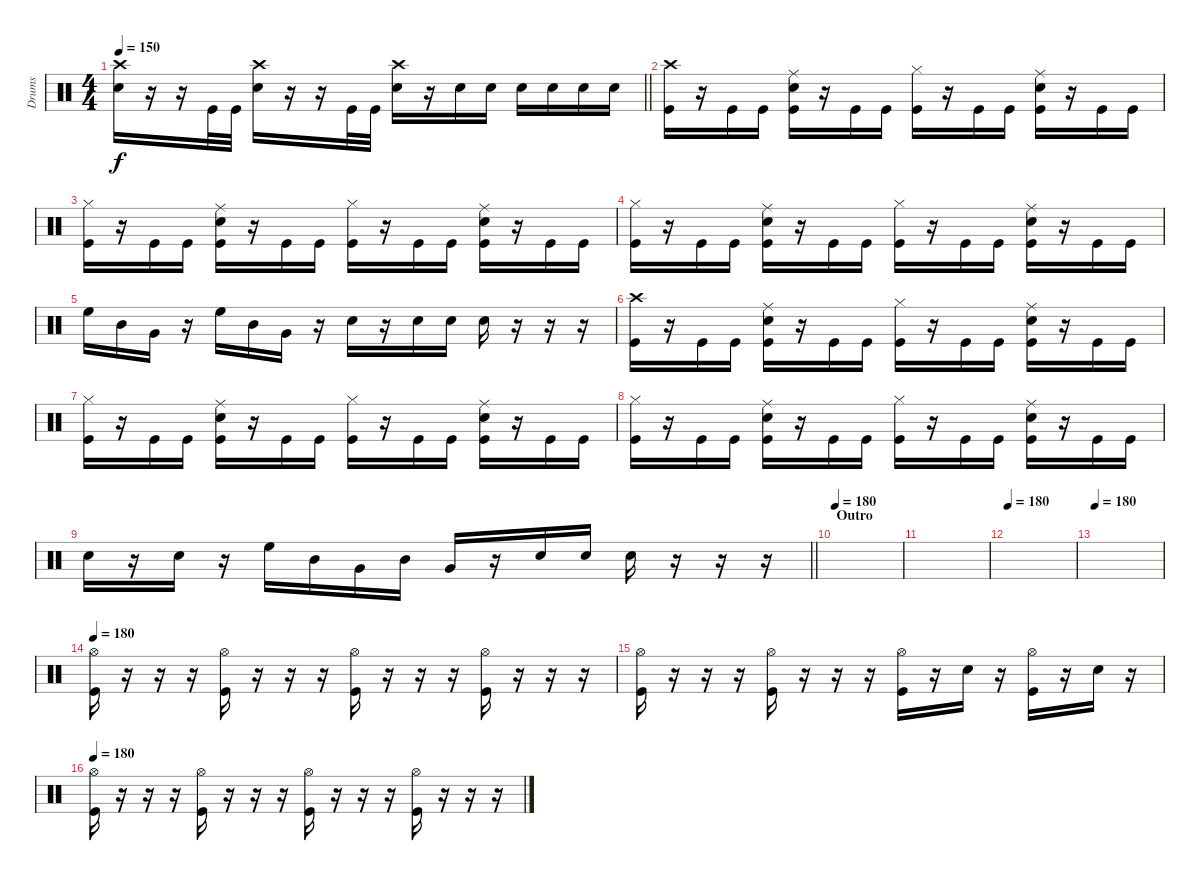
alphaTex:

\track ("Drums" "Drums") {instrument percussion}
\staff
\articulation defaults
\ts (4 4)
\tempo 150
\clef neutral
\barLineRight lightlight
\ks c
("Crash high (hit)" "Snare (hit) 2").16{dy f} r.16 r.16 "Kick (hit)".32 "Kick (hit)".32 ("Crash high (hit)" "Snare (hit) 2").16 r.16 r.16 "Kick (hit)".32 "Kick (hit)".32 ("Crash high (hit)" "Snare (hit) 2").16 r.16 "Snare (hit) 2".16 "Snare (hit) 2".16 "Snare (hit) 2".16 "Snare (hit) 2".16 "Snare (hit) 2".16 "Snare (hit) 2".16 |
\section ("" "")
("Crash high (hit)" "Kick (hit)").16 r.16 "Kick (hit)".16 "Kick (hit)".16 ("Ride (middle)" "Snare (hit) 2" "Kick (hit)").16 r.16 "Kick (hit)".16 "Kick (hit)".16 ("Hi-Hat (closed)" "Kick (hit)").16 r.16 "Kick (hit)".16 "Kick (hit)".16 ("Ride (middle)" "Snare (hit) 2" "Kick (hit)").16 r.16 "Kick (hit)".16 "Kick (hit)".16 |
("Hi-Hat (closed)" "Kick (hit)").16 r.16 "Kick (hit)".16 "Kick (hit)".16 ("Ride (middle)" "Snare (hit) 2" "Kick (hit)").16 r.16 "Kick (hit)".16 "Kick (hit)".16 ("Hi-Hat (closed)" "Kick (hit)").16 r.16 "Kick (hit)".16 "Kick (hit)".16 ("Ride (middle)" "Snare (hit) 2" "Kick (hit)").16 r.16 "Kick (hit)".16 "Kick (hit)".16 |
("Hi-Hat (closed)" "Kick (hit)").16 r.16 "Kick (hit)".16 "Kick (hit)".16 ("Ride (middle)" "Snare (hit) 2" "Kick (hit)").16 r.16 "Kick (hit)".16 "Kick (hit)".16 ("Hi-Hat (closed)" "Kick (hit)").16 r.16 "Kick (hit)".16 "Kick (hit)".16 ("Ride (middle)" "Snare (hit) 2" "Kick (hit)").16 r.16 "Kick (hit)".16 "Kick (hit)".16 |
"High Floor Tom (hit)".16 "Mid Tom (hit)".16 "Very Low Tom (hit)".16 r.16 "High Floor Tom (hit)".16 "Mid Tom (hit)".16 "Very Low Tom (hit)".16 r.16 "Snare (hit) 2".16 r.16 "Snare (hit) 2".16 "Snare (hit) 2".16 "Snare (hit) 2".16 r.16 r.16 r.16 |
("Crash high (hit)" "Kick (hit)").16 r.16 "Kick (hit)".16 "Kick (hit)".16 ("Ride (middle)" "Snare (hit) 2" "Kick (hit)").16 r.16 "Kick (hit)".16 "Kick (hit)".16 ("Hi-Hat (closed)" "Kick (hit)").16 r.16 "Kick (hit)".16 "Kick (hit)".16 ("Ride (middle)" "Snare (hit) 2" "Kick (hit)").16 r.16 "Kick (hit)".16 "Kick (hit)".16 |
("Hi-Hat (closed)" "Kick (hit)").16 r.16 "Kick (hit)".16 "Kick (hit)".16 ("Ride (middle)" "Snare (hit) 2" "Kick (hit)").16 r.16 "Kick (hit)".16 "Kick (hit)".16 ("Hi-Hat (closed)" "Kick (hit)").16 r.16 "Kick (hit)".16 "Kick (hit)".16 ("Ride (middle)" "Snare (hit) 2" "Kick (hit)").16 r.16 "Kick (hit)".16 "Kick (hit)".16 |
("Hi-Hat (closed)" "Kick (hit)").16 r.16 "Kick (hit)".16 "Kick (hit)".16 ("Ride (middle)" "Snare (hit) 2" "Kick (hit)").16 r.16 "Kick (hit)".16 "Kick (hit)".16 ("Hi-Hat (closed)" "Kick (hit)").16 r.16 "Kick (hit)".16 "Kick (hit)".16 ("Ride (middle)" "Snare (hit) 2" "Kick (hit)").16 r.16 "Kick (hit)".16 "Kick (hit)".16 |
\barLineRight lightlight "Snare (hit) 2".16
r.16 "Snare (hit) 2".16 r.16 "High Floor Tom (hit)".16 "Mid Tom (hit)".16 "Very Low Tom (hit)".16 "Mid Tom (hit)".16 "Very Low Tom (hit)".16 r.16 "Snare (hit) 2".16 "Snare (hit) 2".16 "Snare (hit) 2".16 r.16 r.16 r.16 |
\section ("" "Outro")
\tempo 180
|
|
\tempo 180
|
\tempo 180
|
\tempo 180
("Hi-Hat (open)" "Kick (hit)").16 r.16 r.16 r.16 ("Hi-Hat (open)" "Kick (hit)").16 r.16 r.16 r.16 ("Hi-Hat (open)" "Kick (hit)").16 r.16 r.16 r.16 ("Hi-Hat (open)" "Kick (hit)").16 r.16 r.16 r.16 |
("Hi-Hat (open)" "Kick (hit)").16 r.16 r.16 r.16 ("Hi-Hat (open)" "Kick (hit)").16 r.16 r.16 r.16 ("Hi-Hat (open)" "Kick (hit)").16 r.16 "Snare (hit) 2".16 r.16 ("Hi-Hat (open)" "Kick (hit)").16 r.16 "Snare (hit) 2".16 r.16 |
\tempo 180
("Hi-Hat (open)" "Kick (hit)").16 r.16 r.16 r.16 ("Hi-Hat (open)" "Kick (hit)").16 r.16 r.16 r.16 ("Hi-Hat (open)" "Kick (hit)").16 r.16 r.16 r.16 ("Hi-Hat (open)" "Kick (hit)").16 r.16 r.16 r.16
